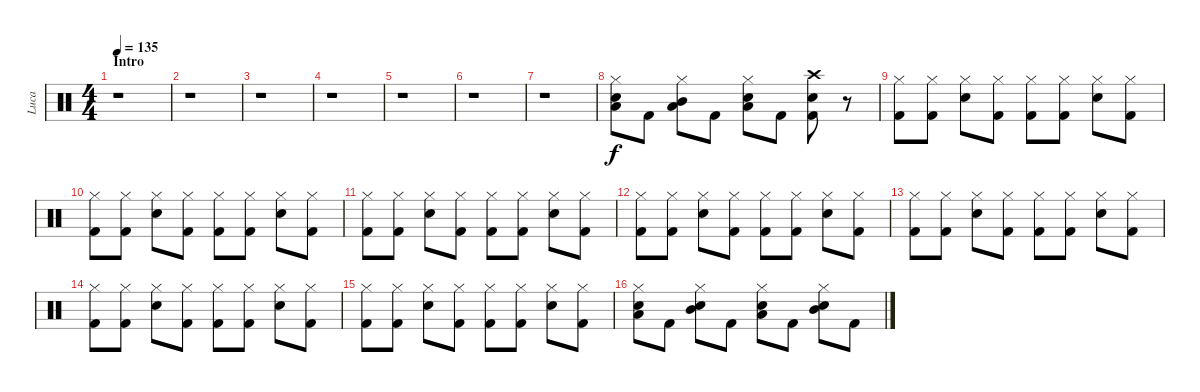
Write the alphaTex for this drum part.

\track ("Luca" "Luca") {instrument percussion}
\staff {score}
\articulation defaults
\ts (4 4)
\section ("" "Intro")
\tempo 135
\clef neutral
\ks c
r.1{dy f} |
r.1 |
r.1 |
r.1 |
r.1 |
r.1 |
r.1 |
("Hi-Hat (closed)" "Low Tom (hit)" "Snare (hit) 2").8 "Kick (hit) 2".8 ("Hi-Hat (closed)" "Mid Tom (hit)" "Low Tom (hit)").8 "Kick (hit) 2".8 ("Hi-Hat (closed)" "Low Tom (hit)" "Snare (hit) 2").8 "Kick (hit) 2".8 ("Crash high (hit)" "Snare (hit) 2" "Kick (hit) 2").8 r.8 |
("Hi-Hat (closed)" "Kick (hit) 2").8 ("Hi-Hat (closed)" "Kick (hit) 2").8 ("Hi-Hat (closed)" "Snare (hit) 2").8 ("Hi-Hat (closed)" "Kick (hit) 2").8 ("Hi-Hat (closed)" "Kick (hit) 2").8 ("Hi-Hat (closed)" "Kick (hit) 2").8 ("Hi-Hat (closed)" "Snare (hit) 2").8 ("Hi-Hat (closed)" "Kick (hit) 2").8 |
("Hi-Hat (closed)" "Kick (hit) 2").8 ("Hi-Hat (closed)" "Kick (hit) 2").8 ("Hi-Hat (closed)" "Snare (hit) 2").8 ("Hi-Hat (closed)" "Kick (hit) 2").8 ("Hi-Hat (closed)" "Kick (hit) 2").8 ("Hi-Hat (closed)" "Kick (hit) 2").8 ("Hi-Hat (closed)" "Snare (hit) 2").8 ("Hi-Hat (closed)" "Kick (hit) 2").8 |
("Hi-Hat (closed)" "Kick (hit) 2").8 ("Hi-Hat (closed)" "Kick (hit) 2").8 ("Hi-Hat (closed)" "Snare (hit) 2").8 ("Hi-Hat (closed)" "Kick (hit) 2").8 ("Hi-Hat (closed)" "Kick (hit) 2").8 ("Hi-Hat (closed)" "Kick (hit) 2").8 ("Hi-Hat (closed)" "Snare (hit) 2").8 ("Hi-Hat (closed)" "Kick (hit) 2").8 |
("Hi-Hat (closed)" "Kick (hit) 2").8 ("Hi-Hat (closed)" "Kick (hit) 2").8 ("Hi-Hat (closed)" "Snare (hit) 2").8 ("Hi-Hat (closed)" "Kick (hit) 2").8 ("Hi-Hat (closed)" "Kick (hit) 2").8 ("Hi-Hat (closed)" "Kick (hit) 2").8 ("Hi-Hat (closed)" "Snare (hit) 2").8 ("Hi-Hat (closed)" "Kick (hit) 2").8 |
("Hi-Hat (closed)" "Kick (hit) 2").8 ("Hi-Hat (closed)" "Kick (hit) 2").8 ("Hi-Hat (closed)" "Snare (hit) 2").8 ("Hi-Hat (closed)" "Kick (hit) 2").8 ("Hi-Hat (closed)" "Kick (hit) 2").8 ("Hi-Hat (closed)" "Kick (hit) 2").8 ("Hi-Hat (closed)" "Snare (hit) 2").8 ("Hi-Hat (closed)" "Kick (hit) 2").8 |
("Hi-Hat (closed)" "Kick (hit) 2").8 ("Hi-Hat (closed)" "Kick (hit) 2").8 ("Hi-Hat (closed)" "Snare (hit) 2").8 ("Hi-Hat (closed)" "Kick (hit) 2").8 ("Hi-Hat (closed)" "Kick (hit) 2").8 ("Hi-Hat (closed)" "Kick (hit) 2").8 ("Hi-Hat (closed)" "Snare (hit) 2").8 ("Hi-Hat (closed)" "Kick (hit) 2").8 |
("Hi-Hat (closed)" "Kick (hit) 2").8 ("Hi-Hat (closed)" "Kick (hit) 2").8 ("Hi-Hat (closed)" "Snare (hit) 2").8 ("Hi-Hat (closed)" "Kick (hit) 2").8 ("Hi-Hat (closed)" "Kick (hit) 2").8 ("Hi-Hat (closed)" "Kick (hit) 2").8 ("Hi-Hat (closed)" "Snare (hit) 2").8 ("Hi-Hat (closed)" "Kick (hit) 2").8 |
("Hi-Hat (closed)" "Low Tom (hit)" "Snare (hit) 2").8 "Kick (hit) 2".8 ("Hi-Hat (closed)" "Mid Tom (hit)" "Snare (hit) 2").8 "Kick (hit) 2".8 ("Hi-Hat (closed)" "Low Tom (hit)" "Snare (hit) 2").8 "Kick (hit) 2".8 ("Hi-Hat (closed)" "Mid Tom (hit)" "Snare (hit) 2").8 "Kick (hit) 2".8
